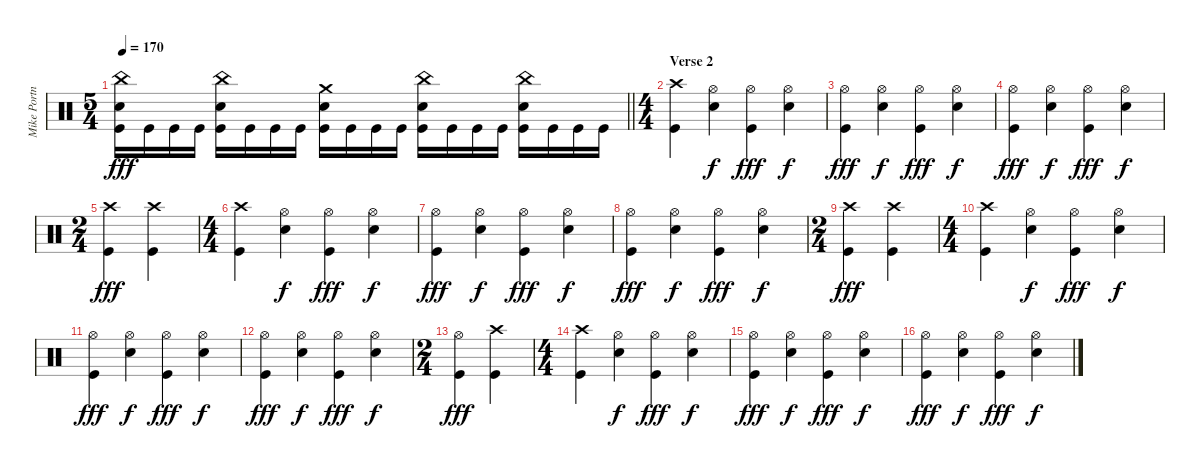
\track ("Mike Portnoy" "Mike Portn") {instrument percussion}
\staff {score}
\articulation defaults
\ts (5 4)
\tempo 170
\clef neutral
\barLineRight lightlight
\ks c
("China (hit)" "Electric Snare (hit)" "Kick (hit)").16{dy fff} "Kick (hit)".16 "Kick (hit)".16 "Kick (hit)".16 ("China (hit)" "Electric Snare (hit)" "Kick (hit)").16 "Kick (hit)".16 "Kick (hit)".16 "Kick (hit)".16 ("Crash medium (hit)" "Electric Snare (hit)" "Kick (hit)").16 "Kick (hit)".16 "Kick (hit)".16 "Kick (hit)".16 ("China (hit)" "Electric Snare (hit)" "Kick (hit)").16 "Kick (hit)".16 "Kick (hit)".16 "Kick (hit)".16 ("China (hit)" "Electric Snare (hit)" "Kick (hit)").16 "Kick (hit)".16 "Kick (hit)".16 "Kick (hit)".16 |
\ts (4 4)
\section ("" "Verse 2")
("Crash high (hit)" "Kick (hit)").4 ("Hi-Hat (open)" "Electric Snare (hit)").4{dy f} ("Hi-Hat (open)" "Kick (hit)").4{dy fff} ("Hi-Hat (open)" "Electric Snare (hit)").4{dy f} |
("Hi-Hat (open)" "Kick (hit)").4{dy fff} ("Hi-Hat (open)" "Electric Snare (hit)").4{dy f} ("Hi-Hat (open)" "Kick (hit)").4{dy fff} ("Hi-Hat (open)" "Electric Snare (hit)").4{dy f} |
("Hi-Hat (open)" "Kick (hit)").4{dy fff} ("Hi-Hat (open)" "Electric Snare (hit)").4{dy f} ("Hi-Hat (open)" "Kick (hit)").4{dy fff} ("Hi-Hat (open)" "Electric Snare (hit)").4{dy f} |
\ts (2 4)
("Crash high (hit)" "Kick (hit)").4{dy fff} ("Crash high (hit)" "Kick (hit)").4 |
\ts (4 4)
("Crash high (hit)" "Kick (hit)").4 ("Hi-Hat (open)" "Electric Snare (hit)").4{dy f} ("Hi-Hat (open)" "Kick (hit)").4{dy fff} ("Hi-Hat (open)" "Electric Snare (hit)").4{dy f} |
("Hi-Hat (open)" "Kick (hit)").4{dy fff} ("Hi-Hat (open)" "Electric Snare (hit)").4{dy f} ("Hi-Hat (open)" "Kick (hit)").4{dy fff} ("Hi-Hat (open)" "Electric Snare (hit)").4{dy f} |
("Hi-Hat (open)" "Kick (hit)").4{dy fff} ("Hi-Hat (open)" "Electric Snare (hit)").4{dy f} ("Hi-Hat (open)" "Kick (hit)").4{dy fff} ("Hi-Hat (open)" "Electric Snare (hit)").4{dy f} |
\ts (2 4)
("Crash high (hit)" "Kick (hit)").4{dy fff} ("Crash high (hit)" "Kick (hit)").4 |
\ts (4 4)
("Crash high (hit)" "Kick (hit)").4 ("Hi-Hat (open)" "Electric Snare (hit)").4{dy f} ("Hi-Hat (open)" "Kick (hit)").4{dy fff} ("Hi-Hat (open)" "Electric Snare (hit)").4{dy f} |
("Hi-Hat (open)" "Kick (hit)").4{dy fff} ("Hi-Hat (open)" "Electric Snare (hit)").4{dy f} ("Hi-Hat (open)" "Kick (hit)").4{dy fff} ("Hi-Hat (open)" "Electric Snare (hit)").4{dy f} |
("Hi-Hat (open)" "Kick (hit)").4{dy fff} ("Hi-Hat (open)" "Electric Snare (hit)").4{dy f} ("Hi-Hat (open)" "Kick (hit)").4{dy fff} ("Hi-Hat (open)" "Electric Snare (hit)").4{dy f} |
\ts (2 4)
("Hi-Hat (open)" "Kick (hit)").4{dy fff} ("Crash high (hit)" "Kick (hit)").4 |
\ts (4 4)
("Crash high (hit)" "Kick (hit)").4 ("Hi-Hat (open)" "Electric Snare (hit)").4{dy f} ("Hi-Hat (open)" "Kick (hit)").4{dy fff} ("Hi-Hat (open)" "Electric Snare (hit)").4{dy f} |
("Hi-Hat (open)" "Kick (hit)").4{dy fff} ("Hi-Hat (open)" "Electric Snare (hit)").4{dy f} ("Hi-Hat (open)" "Kick (hit)").4{dy fff} ("Hi-Hat (open)" "Electric Snare (hit)").4{dy f} |
("Hi-Hat (open)" "Kick (hit)").4{dy fff} ("Hi-Hat (open)" "Electric Snare (hit)").4{dy f} ("Hi-Hat (open)" "Kick (hit)").4{dy fff} ("Hi-Hat (open)" "Electric Snare (hit)").4{dy f}
